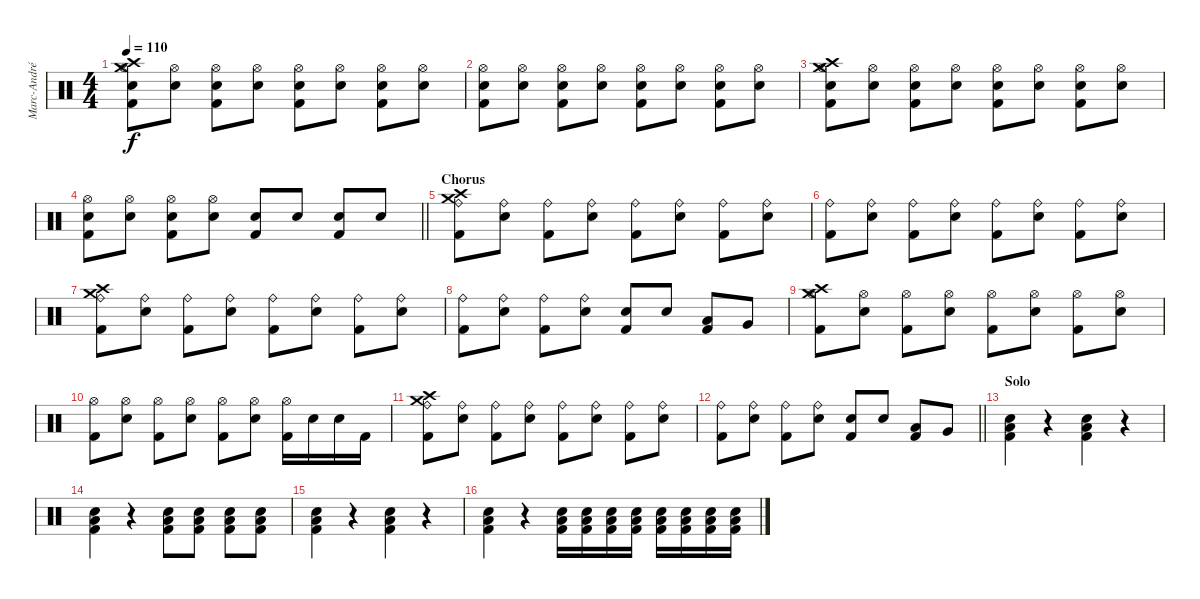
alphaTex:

\track ("Marc-André Barabé" "Marc-André") {instrument percussion}
\staff {score}
\articulation defaults
\ts (4 4)
\tempo 110
\clef neutral
\ks c
("Crash high (hit)" "Crash medium (hit)" "Hi-Hat (open)" "Electric Snare (hit)" "Kick (hit) 2"{tr (2 32)}).8{dy f} ("Hi-Hat (open)" "Electric Snare (hit)").8 ("Hi-Hat (open)" "Electric Snare (hit)" "Kick (hit) 2"{tr (2 32)}).8 ("Hi-Hat (open)" "Electric Snare (hit)").8 ("Hi-Hat (open)" "Electric Snare (hit)" "Kick (hit) 2"{tr (2 32)}).8 ("Hi-Hat (open)" "Electric Snare (hit)").8 ("Hi-Hat (open)" "Electric Snare (hit)" "Kick (hit) 2"{tr (2 32)}).8 ("Hi-Hat (open)" "Electric Snare (hit)").8 |
("Hi-Hat (open)" "Electric Snare (hit)" "Kick (hit) 2"{tr (2 32)}).8 ("Hi-Hat (open)" "Electric Snare (hit)").8 ("Hi-Hat (open)" "Electric Snare (hit)" "Kick (hit) 2"{tr (2 32)}).8 ("Hi-Hat (open)" "Electric Snare (hit)").8 ("Hi-Hat (open)" "Electric Snare (hit)" "Kick (hit) 2"{tr (2 32)}).8 ("Hi-Hat (open)" "Electric Snare (hit)").8 ("Hi-Hat (open)" "Electric Snare (hit)" "Kick (hit) 2"{tr (2 32)}).8 ("Hi-Hat (open)" "Electric Snare (hit)").8 |
("Crash high (hit)" "Crash medium (hit)" "Hi-Hat (open)" "Electric Snare (hit)" "Kick (hit) 2"{tr (2 32)}).8 ("Hi-Hat (open)" "Electric Snare (hit)").8 ("Hi-Hat (open)" "Electric Snare (hit)" "Kick (hit) 2"{tr (2 32)}).8 ("Hi-Hat (open)" "Electric Snare (hit)").8 ("Hi-Hat (open)" "Electric Snare (hit)" "Kick (hit) 2"{tr (2 32)}).8 ("Hi-Hat (open)" "Electric Snare (hit)").8 ("Hi-Hat (open)" "Electric Snare (hit)" "Kick (hit) 2"{tr (2 32)}).8 ("Hi-Hat (open)" "Electric Snare (hit)").8 |
\barLineRight lightlight
("Hi-Hat (open)" "Electric Snare (hit)" "Kick (hit) 2"{tr (2 32)}).8 ("Hi-Hat (open)" "Electric Snare (hit)").8 ("Hi-Hat (open)" "Electric Snare (hit)" "Kick (hit) 2"{tr (2 32)}).8 ("Hi-Hat (open)" "Electric Snare (hit)").8 ("Electric Snare (hit)"{tr (40 32)} "Kick (hit) 2"{tr (2 32)}).8 "Electric Snare (hit)"{tr (40 32)}.8 ("Electric Snare (hit)"{tr (40 32)} "Kick (hit) 2"{tr (2 32)}).8 "Electric Snare (hit)"{tr (40 32)}.8 |
\section ("" "Chorus")
("Crash high (hit)" "Crash medium (hit)" "Ride (bell)" "Kick (hit) 2"{tr (2 32)}).8 ("Ride (bell)" "Electric Snare (hit)").8 ("Ride (bell)" "Kick (hit) 2"{tr (2 32)}).8 ("Ride (bell)" "Electric Snare (hit)").8 ("Ride (bell)" "Kick (hit) 2"{tr (2 32)}).8 ("Ride (bell)" "Electric Snare (hit)").8 ("Ride (bell)" "Kick (hit) 2"{tr (2 32)}).8 ("Ride (bell)" "Electric Snare (hit)").8 |
("Ride (bell)" "Kick (hit) 2"{tr (2 32)}).8 ("Ride (bell)" "Electric Snare (hit)").8 ("Ride (bell)" "Kick (hit) 2"{tr (2 32)}).8 ("Ride (bell)" "Electric Snare (hit)").8 ("Ride (bell)" "Kick (hit) 2"{tr (2 32)}).8 ("Ride (bell)" "Electric Snare (hit)").8 ("Ride (bell)" "Kick (hit) 2"{tr (2 32)}).8 ("Ride (bell)" "Electric Snare (hit)").8 |
("Crash high (hit)" "Crash medium (hit)" "Ride (bell)" "Kick (hit) 2"{tr (2 32)}).8 ("Ride (bell)" "Electric Snare (hit)").8 ("Ride (bell)" "Kick (hit) 2"{tr (2 32)}).8 ("Ride (bell)" "Electric Snare (hit)").8 ("Ride (bell)" "Kick (hit) 2"{tr (2 32)}).8 ("Ride (bell)" "Electric Snare (hit)").8 ("Ride (bell)" "Kick (hit) 2"{tr (2 32)}).8 ("Ride (bell)" "Electric Snare (hit)").8 |
("Ride (bell)" "Kick (hit) 2"{tr (2 32)}).8 ("Ride (bell)" "Electric Snare (hit)").8 ("Ride (bell)" "Kick (hit) 2"{tr (2 32)}).8 ("Ride (bell)" "Electric Snare (hit)").8 ("Electric Snare (hit)"{tr (40 32)} "Kick (hit) 2"{tr (2 32)}).8 "Electric Snare (hit)"{tr (40 32)}.8 ("Low Tom (hit)"{tr (45 32)} "Kick (hit) 2"{tr (2 32)}).8 "Very Low Tom (hit)"{tr (43 32)}.8 |
("Crash high (hit)" "Crash medium (hit)" "Hi-Hat (open)" "Kick (hit) 2"{tr (2 32)}).8 ("Hi-Hat (open)" "Electric Snare (hit)").8 ("Hi-Hat (open)" "Kick (hit) 2"{tr (2 32)}).8 ("Hi-Hat (open)" "Electric Snare (hit)").8 ("Hi-Hat (open)" "Kick (hit) 2"{tr (2 32)}).8 ("Hi-Hat (open)" "Electric Snare (hit)").8 ("Hi-Hat (open)" "Kick (hit) 2"{tr (2 32)}).8 ("Hi-Hat (open)" "Electric Snare (hit)").8 |
("Hi-Hat (open)" "Kick (hit) 2"{tr (2 32)}).8 ("Hi-Hat (open)" "Electric Snare (hit)").8 ("Hi-Hat (open)" "Kick (hit) 2"{tr (2 32)}).8 ("Hi-Hat (open)" "Electric Snare (hit)").8 ("Hi-Hat (open)" "Kick (hit) 2"{tr (2 32)}).8 ("Hi-Hat (open)" "Electric Snare (hit)").8 ("Hi-Hat (open)" "Kick (hit) 2"{tr (2 32)}).16 "Electric Snare (hit)".16 "Electric Snare (hit)".16 "Kick (hit) 2".16 |
("Crash high (hit)" "Crash medium (hit)" "Ride (bell)" "Kick (hit) 2"{tr (2 32)}).8 ("Ride (bell)" "Electric Snare (hit)").8 ("Ride (bell)" "Kick (hit) 2"{tr (2 32)}).8 ("Ride (bell)" "Electric Snare (hit)").8 ("Ride (bell)" "Kick (hit) 2"{tr (2 32)}).8 ("Ride (bell)" "Electric Snare (hit)").8 ("Ride (bell)" "Kick (hit) 2"{tr (2 32)}).8 ("Ride (bell)" "Electric Snare (hit)").8 |
\barLineRight lightlight
("Ride (bell)" "Kick (hit) 2"{tr (2 32)}).8 ("Ride (bell)" "Electric Snare (hit)").8 ("Ride (bell)" "Kick (hit) 2"{tr (2 32)}).8 ("Ride (bell)" "Electric Snare (hit)").8 ("Electric Snare (hit)"{tr (40 32)} "Kick (hit) 2"{tr (2 32)}).8 "Electric Snare (hit)"{tr (40 32)}.8 ("Low Tom (hit)"{tr (45 32)} "Kick (hit) 2"{tr (2 32)}).8 "Very Low Tom (hit)"{tr (43 32)}.8 |
\section ("" "Solo")
("Electric Snare (hit)" "Low Floor Tom (hit)" "Kick (hit) 2").4 r.4 ("Electric Snare (hit)" "Low Floor Tom (hit)" "Kick (hit) 2").4 r.4 |
("Electric Snare (hit)" "Low Floor Tom (hit)" "Kick (hit) 2").4 r.4 ("Electric Snare (hit)" "Low Floor Tom (hit)" "Kick (hit) 2").8 ("Electric Snare (hit)" "Low Floor Tom (hit)" "Kick (hit) 2").8 ("Electric Snare (hit)" "Low Floor Tom (hit)" "Kick (hit) 2").8 ("Electric Snare (hit)" "Low Floor Tom (hit)" "Kick (hit) 2").8 |
("Electric Snare (hit)" "Low Floor Tom (hit)" "Kick (hit) 2").4 r.4 ("Electric Snare (hit)" "Low Floor Tom (hit)" "Kick (hit) 2").4 r.4 |
("Electric Snare (hit)" "Low Floor Tom (hit)" "Kick (hit) 2").4 r.4 ("Electric Snare (hit)" "Low Floor Tom (hit)" "Kick (hit) 2").16 ("Electric Snare (hit)" "Low Floor Tom (hit)" "Kick (hit) 2").16 ("Electric Snare (hit)" "Low Floor Tom (hit)" "Kick (hit) 2").16 ("Electric Snare (hit)" "Low Floor Tom (hit)" "Kick (hit) 2").16 ("Electric Snare (hit)" "Low Floor Tom (hit)" "Kick (hit) 2").16 ("Electric Snare (hit)" "Low Floor Tom (hit)" "Kick (hit) 2").16 ("Electric Snare (hit)" "Low Floor Tom (hit)" "Kick (hit) 2").16 ("Electric Snare (hit)" "Low Floor Tom (hit)" "Kick (hit) 2").16
